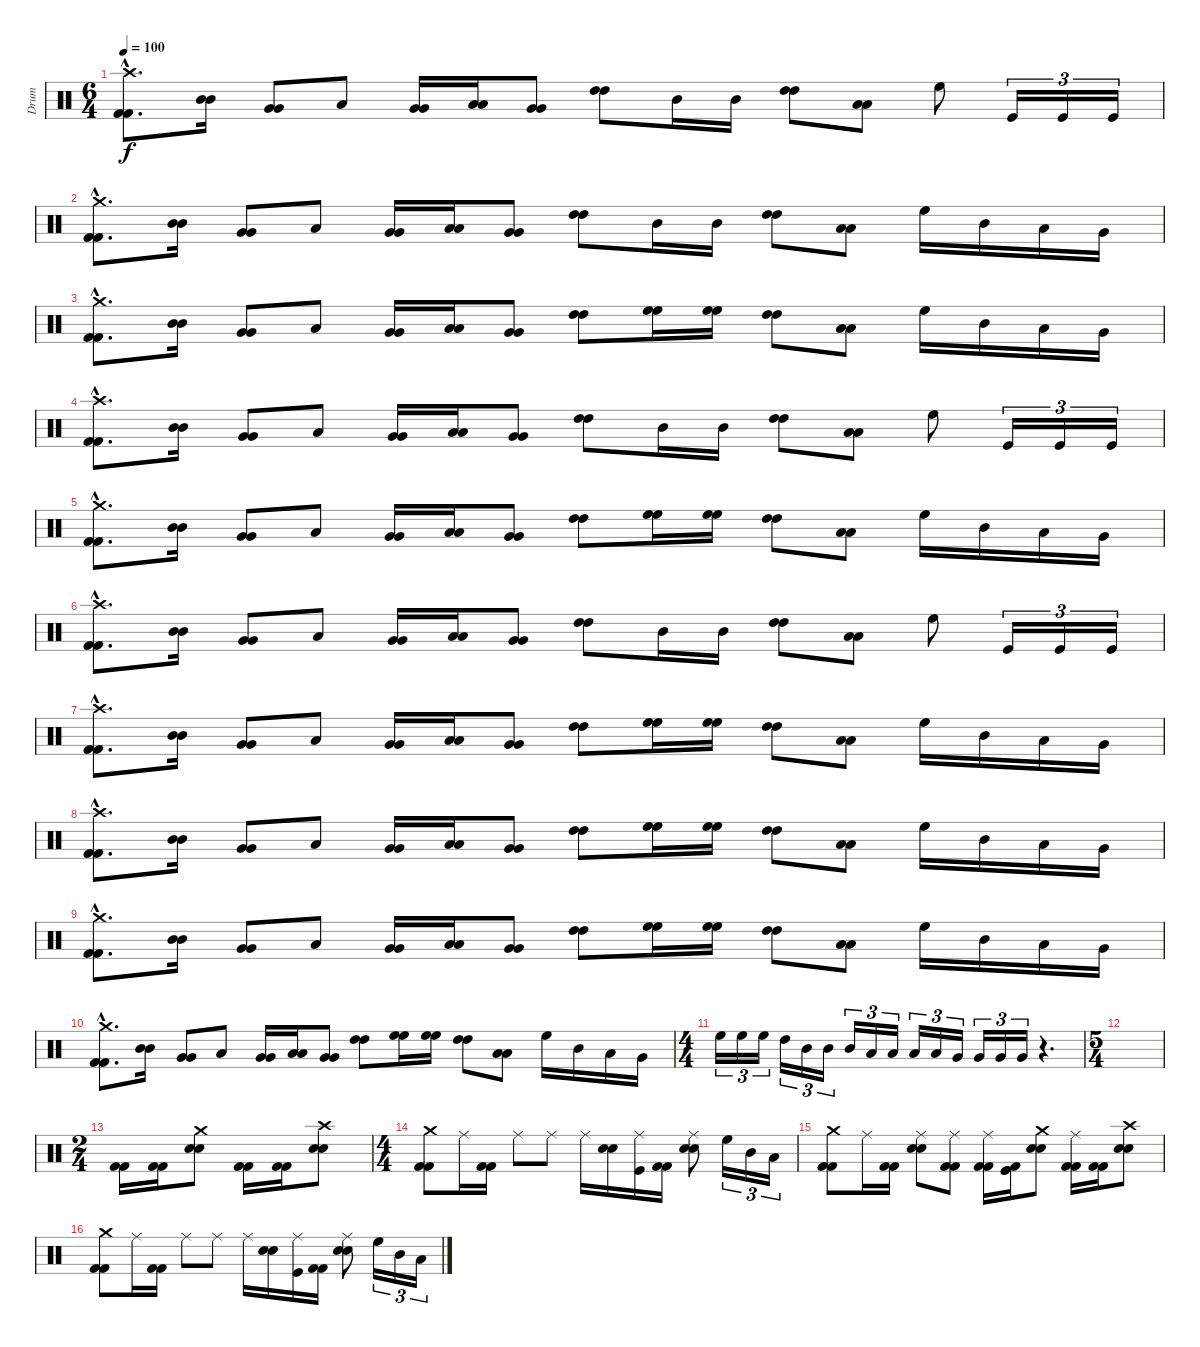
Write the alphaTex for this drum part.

\track ("Drum" "Drum") {instrument percussion}
\staff {score}
\articulation defaults
\ts (6 4)
\tempo 100
\clef neutral
\ks c
("Crash high (hit)"{hac} "Kick (hit) 2"{hac} "Kick (hit) 2"{hac}).8{d dy f} ("Mid Tom (hit)" "Mid Tom (hit)").16 ("Very Low Tom (hit)" "Very Low Tom (hit)").8 "Low Tom (hit)".8 ("Very Low Tom (hit)" "Very Low Tom (hit)").16 ("Low Tom (hit)" "Low Tom (hit)").16 ("Very Low Tom (hit)" "Very Low Tom (hit)").8 ("High Tom (hit)" "High Tom (hit)").8 "Mid Tom (hit)".16 "Mid Tom (hit)".16 ("High Tom (hit)" "High Tom (hit)").8 ("Low Tom (hit)" "Low Tom (hit)").8 "High Floor Tom (hit)".8 "Kick (hit)".16{tu (3 2)} "Kick (hit)".16{tu (3 2)} "Kick (hit)".16{tu (3 2)} |
("Crash medium (hit)"{hac} "Kick (hit) 2"{hac} "Kick (hit) 2"{hac}).8{d} ("Mid Tom (hit)" "Mid Tom (hit)").16 ("Very Low Tom (hit)" "Very Low Tom (hit)").8 "Low Tom (hit)".8 ("Very Low Tom (hit)" "Very Low Tom (hit)").16 ("Low Tom (hit)" "Low Tom (hit)").16 ("Very Low Tom (hit)" "Very Low Tom (hit)").8 ("High Tom (hit)" "High Tom (hit)").8 "Mid Tom (hit)".16 "Mid Tom (hit)".16 ("High Tom (hit)" "High Tom (hit)").8 ("Low Tom (hit)" "Low Tom (hit)").8 "High Floor Tom (hit)".16 "Mid Tom (hit)".16 "Low Tom (hit)".16 "Very Low Tom (hit)".16 |
("Crash medium (hit)"{hac} "Kick (hit) 2"{hac} "Kick (hit) 2"{hac}).8{d} ("Mid Tom (hit)" "Mid Tom (hit)").16 ("Very Low Tom (hit)" "Very Low Tom (hit)").8 "Low Tom (hit)".8 ("Very Low Tom (hit)" "Very Low Tom (hit)").16 ("Low Tom (hit)" "Low Tom (hit)").16 ("Very Low Tom (hit)" "Very Low Tom (hit)").8 ("High Tom (hit)" "High Tom (hit)").8 ("High Floor Tom (hit)" "High Floor Tom (hit)").16 ("High Floor Tom (hit)" "High Floor Tom (hit)").16 ("High Tom (hit)" "High Tom (hit)").8 ("Low Tom (hit)" "Low Tom (hit)").8 "High Floor Tom (hit)".16 "Mid Tom (hit)".16 "Low Tom (hit)".16 "Very Low Tom (hit)".16 |
("Crash high (hit)"{hac} "Kick (hit) 2"{hac} "Kick (hit) 2"{hac}).8{d} ("Mid Tom (hit)" "Mid Tom (hit)").16 ("Very Low Tom (hit)" "Very Low Tom (hit)").8 "Low Tom (hit)".8 ("Very Low Tom (hit)" "Very Low Tom (hit)").16 ("Low Tom (hit)" "Low Tom (hit)").16 ("Very Low Tom (hit)" "Very Low Tom (hit)").8 ("High Tom (hit)" "High Tom (hit)").8 "Mid Tom (hit)".16 "Mid Tom (hit)".16 ("High Tom (hit)" "High Tom (hit)").8 ("Low Tom (hit)" "Low Tom (hit)").8 "High Floor Tom (hit)".8 "Kick (hit)".16{tu (3 2)} "Kick (hit)".16{tu (3 2)} "Kick (hit)".16{tu (3 2)} |
("Crash medium (hit)"{hac} "Kick (hit) 2"{hac} "Kick (hit) 2"{hac}).8{d} ("Mid Tom (hit)" "Mid Tom (hit)").16 ("Very Low Tom (hit)" "Very Low Tom (hit)").8 "Low Tom (hit)".8 ("Very Low Tom (hit)" "Very Low Tom (hit)").16 ("Low Tom (hit)" "Low Tom (hit)").16 ("Very Low Tom (hit)" "Very Low Tom (hit)").8 ("High Tom (hit)" "High Tom (hit)").8 ("High Floor Tom (hit)" "High Floor Tom (hit)").16 ("High Floor Tom (hit)" "High Floor Tom (hit)").16 ("High Tom (hit)" "High Tom (hit)").8 ("Low Tom (hit)" "Low Tom (hit)").8 "High Floor Tom (hit)".16 "Mid Tom (hit)".16 "Low Tom (hit)".16 "Very Low Tom (hit)".16 |
("Crash high (hit)"{hac} "Kick (hit) 2"{hac} "Kick (hit) 2"{hac}).8{d} ("Mid Tom (hit)" "Mid Tom (hit)").16 ("Very Low Tom (hit)" "Very Low Tom (hit)").8 "Low Tom (hit)".8 ("Very Low Tom (hit)" "Very Low Tom (hit)").16 ("Low Tom (hit)" "Low Tom (hit)").16 ("Very Low Tom (hit)" "Very Low Tom (hit)").8 ("High Tom (hit)" "High Tom (hit)").8 "Mid Tom (hit)".16 "Mid Tom (hit)".16 ("High Tom (hit)" "High Tom (hit)").8 ("Low Tom (hit)" "Low Tom (hit)").8 "High Floor Tom (hit)".8 "Kick (hit)".16{tu (3 2)} "Kick (hit)".16{tu (3 2)} "Kick (hit)".16{tu (3 2)} |
("Crash high (hit)"{hac} "Kick (hit) 2"{hac} "Kick (hit) 2"{hac}).8{d} ("Mid Tom (hit)" "Mid Tom (hit)").16 ("Very Low Tom (hit)" "Very Low Tom (hit)").8 "Low Tom (hit)".8 ("Very Low Tom (hit)" "Very Low Tom (hit)").16 ("Low Tom (hit)" "Low Tom (hit)").16 ("Very Low Tom (hit)" "Very Low Tom (hit)").8 ("High Tom (hit)" "High Tom (hit)").8 ("High Floor Tom (hit)" "High Floor Tom (hit)").16 ("High Floor Tom (hit)" "High Floor Tom (hit)").16 ("High Tom (hit)" "High Tom (hit)").8 ("Low Tom (hit)" "Low Tom (hit)").8 "High Floor Tom (hit)".16 "Mid Tom (hit)".16 "Low Tom (hit)".16 "Very Low Tom (hit)".16 |
("Crash high (hit)"{hac} "Kick (hit) 2"{hac} "Kick (hit) 2"{hac}).8{d} ("Mid Tom (hit)" "Mid Tom (hit)").16 ("Very Low Tom (hit)" "Very Low Tom (hit)").8 "Low Tom (hit)".8 ("Very Low Tom (hit)" "Very Low Tom (hit)").16 ("Low Tom (hit)" "Low Tom (hit)").16 ("Very Low Tom (hit)" "Very Low Tom (hit)").8 ("High Tom (hit)" "High Tom (hit)").8 ("High Floor Tom (hit)" "High Floor Tom (hit)").16 ("High Floor Tom (hit)" "High Floor Tom (hit)").16 ("High Tom (hit)" "High Tom (hit)").8 ("Low Tom (hit)" "Low Tom (hit)").8 "High Floor Tom (hit)".16 "Mid Tom (hit)".16 "Low Tom (hit)".16 "Very Low Tom (hit)".16 |
("Crash medium (hit)"{hac} "Kick (hit) 2"{hac} "Kick (hit) 2"{hac}).8{d} ("Mid Tom (hit)" "Mid Tom (hit)").16 ("Very Low Tom (hit)" "Very Low Tom (hit)").8 "Low Tom (hit)".8 ("Very Low Tom (hit)" "Very Low Tom (hit)").16 ("Low Tom (hit)" "Low Tom (hit)").16 ("Very Low Tom (hit)" "Very Low Tom (hit)").8 ("High Tom (hit)" "High Tom (hit)").8 ("High Floor Tom (hit)" "High Floor Tom (hit)").16 ("High Floor Tom (hit)" "High Floor Tom (hit)").16 ("High Tom (hit)" "High Tom (hit)").8 ("Low Tom (hit)" "Low Tom (hit)").8 "High Floor Tom (hit)".16 "Mid Tom (hit)".16 "Low Tom (hit)".16 "Very Low Tom (hit)".16 |
("Crash medium (hit)"{hac} "Kick (hit) 2"{hac} "Kick (hit) 2"{hac}).8{d} ("Mid Tom (hit)" "Mid Tom (hit)").16 ("Very Low Tom (hit)" "Very Low Tom (hit)").8 "Low Tom (hit)".8 ("Very Low Tom (hit)" "Very Low Tom (hit)").16 ("Low Tom (hit)" "Low Tom (hit)").16 ("Very Low Tom (hit)" "Very Low Tom (hit)").8 ("High Tom (hit)" "High Tom (hit)").8 ("High Floor Tom (hit)" "High Floor Tom (hit)").16 ("High Floor Tom (hit)" "High Floor Tom (hit)").16 ("High Tom (hit)" "High Tom (hit)").8 ("Low Tom (hit)" "Low Tom (hit)").8 "High Floor Tom (hit)".16 "Mid Tom (hit)".16 "Low Tom (hit)".16 "Very Low Tom (hit)".16 |
\ts (4 4)
"High Floor Tom (hit)".16{tu (3 2)} "High Floor Tom (hit)".16{tu (3 2)} "High Floor Tom (hit)".16{tu (3 2)} "High Tom (hit)".16{tu (3 2)} "Mid Tom (hit)".16{tu (3 2)} "Mid Tom (hit)".16{tu (3 2)} "Mid Tom (hit)".16{tu (3 2)} "Low Tom (hit)".16{tu (3 2)} "Low Tom (hit)".16{tu (3 2)} "Low Tom (hit)".16{tu (3 2)} "Low Tom (hit)".16{tu (3 2)} "Very Low Tom (hit)".16{tu (3 2)} "Very Low Tom (hit)".16{tu (3 2)} "Very Low Tom (hit)".16{tu (3 2)} "Very Low Tom (hit)".16{tu (3 2)} r.4{d} |
\ts (5 4)
|
\ts (2 4)
("Kick (hit) 2" "Kick (hit) 2").16 ("Kick (hit) 2" "Kick (hit) 2").16 ("Crash medium (hit)" "Snare (hit) 2" "Snare (hit) 2").8 ("Kick (hit) 2" "Kick (hit) 2").16 ("Kick (hit) 2" "Kick (hit) 2").16 ("Crash high (hit)" "Snare (hit) 2" "Snare (hit) 2").8 |
\ts (4 4)
("Crash medium (hit)" "Kick (hit) 2" "Kick (hit) 2").8 "Ride (middle)".16 ("Kick (hit) 2" "Kick (hit) 2").16 "Ride (middle)".8 "Ride (middle)".8 "Ride (middle)".16 ("Snare (hit) 2" "Snare (hit) 2").16 ("Ride (middle)" "Kick (hit)").16 ("Kick (hit) 2" "Kick (hit) 2").16 ("Ride (middle)" "Snare (hit) 2" "Snare (hit) 2").8 "High Floor Tom (hit)".16{tu (3 2)} "Mid Tom (hit)".16{tu (3 2)} "Low Tom (hit)".16{tu (3 2)} |
("Crash medium (hit)" "Kick (hit) 2" "Kick (hit) 2").8 "Ride (middle)".16 ("Kick (hit) 2" "Kick (hit) 2").16 ("Ride (middle)" "Snare (hit) 2" "Snare (hit) 2").8 ("Ride (middle)" "Kick (hit) 2" "Kick (hit) 2").8 ("Ride (middle)" "Kick (hit) 2" "Kick (hit) 2").16 ("Kick (hit) 2" "Kick (hit)" "Kick (hit)").16 ("Crash medium (hit)" "Snare (hit) 2" "Snare (hit) 2").8 ("Ride (middle)" "Kick (hit) 2" "Kick (hit) 2").16 ("Kick (hit) 2" "Kick (hit) 2").16 ("Crash high (hit)" "Snare (hit) 2" "Snare (hit) 2").8 |
("Crash medium (hit)" "Kick (hit) 2" "Kick (hit) 2").8 "Ride (middle)".16 ("Kick (hit) 2" "Kick (hit) 2").16 "Ride (middle)".8 "Ride (middle)".8 "Ride (middle)".16 ("Snare (hit) 2" "Snare (hit) 2").16 ("Ride (middle)" "Kick (hit)").16 ("Kick (hit) 2" "Kick (hit) 2").16 ("Ride (middle)" "Snare (hit) 2" "Snare (hit) 2").8 "High Floor Tom (hit)".16{tu (3 2)} "Mid Tom (hit)".16{tu (3 2)} "Low Tom (hit)".16{tu (3 2)}
